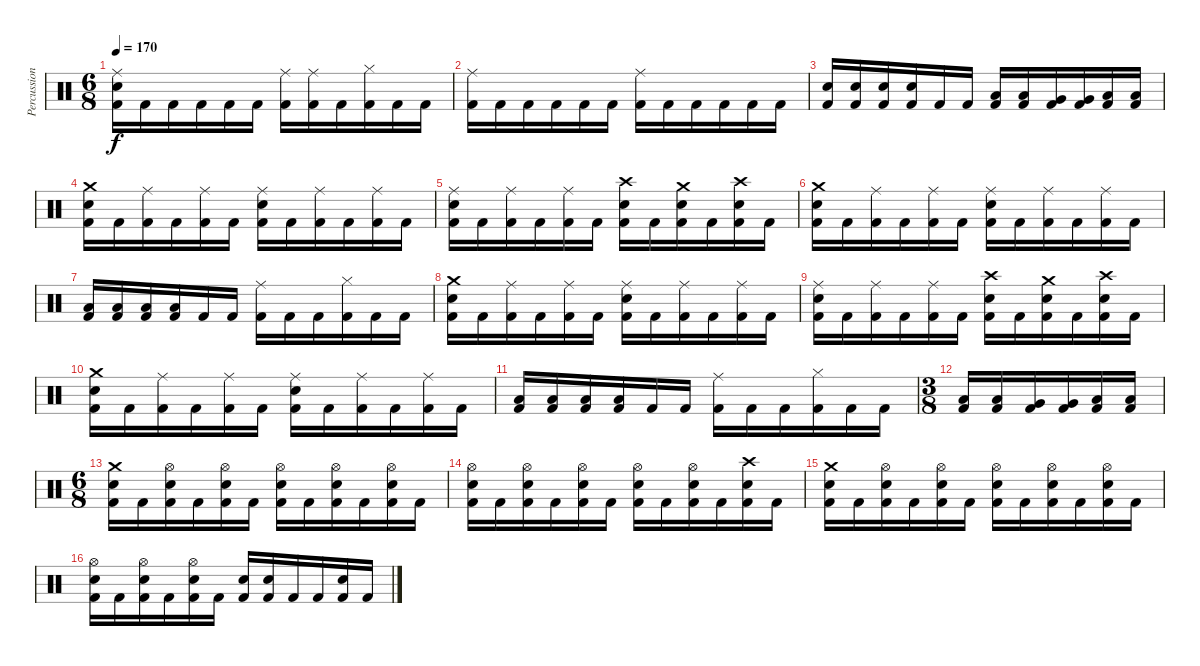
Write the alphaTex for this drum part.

\track ("Percussions" "Percussion") {instrument percussion}
\staff {score}
\articulation defaults
\ts (6 8)
\tempo 170
\clef neutral
\ks c
("Ride (middle)" "Electric Snare (hit)" "Kick (hit) 2").16{dy f} "Kick (hit) 2".16 "Kick (hit) 2".16 "Kick (hit) 2".16 "Kick (hit) 2".16 "Kick (hit) 2".16 ("Ride (middle)" "Kick (hit) 2").16 ("Ride (middle)" "Kick (hit) 2").16 "Kick (hit) 2".16 ("Hi-Hat (closed)" "Kick (hit) 2").16 "Kick (hit) 2".16 "Kick (hit) 2".16 |
("Ride (middle)" "Kick (hit) 2").16 "Kick (hit) 2".16 "Kick (hit) 2".16 "Kick (hit) 2".16 "Kick (hit) 2".16 "Kick (hit) 2".16 ("Ride (middle)" "Kick (hit) 2").16 "Kick (hit) 2".16 "Kick (hit) 2".16 "Kick (hit) 2".16 "Kick (hit) 2".16 "Kick (hit) 2".16 |
("Electric Snare (hit)" "Kick (hit) 2").16 ("Electric Snare (hit)" "Kick (hit) 2").16 ("Electric Snare (hit)" "Kick (hit) 2").16 ("Electric Snare (hit)" "Kick (hit) 2").16 "Kick (hit) 2".16 "Kick (hit) 2".16 ("Low Tom (hit)" "Kick (hit) 2").16 ("Low Tom (hit)" "Kick (hit) 2").16 ("Very Low Tom (hit)" "Kick (hit) 2").16 ("Very Low Tom (hit)" "Kick (hit) 2").16 ("Low Floor Tom (hit)" "Kick (hit) 2").16 ("Low Floor Tom (hit)" "Kick (hit) 2").16 |
("Crash medium (hit)" "Electric Snare (hit)" "Kick (hit) 2").16 "Kick (hit) 2".16 ("Ride (middle)" "Kick (hit) 2").16 "Kick (hit) 2".16 ("Ride (middle)" "Kick (hit) 2").16 "Kick (hit) 2".16 ("Ride (middle)" "Electric Snare (hit)" "Kick (hit) 2").16 "Kick (hit) 2".16 ("Ride (middle)" "Kick (hit) 2").16 "Kick (hit) 2".16 ("Ride (middle)" "Kick (hit) 2").16 "Kick (hit) 2".16 |
("Ride (middle)" "Electric Snare (hit)" "Kick (hit) 2").16 "Kick (hit) 2".16 ("Ride (middle)" "Kick (hit) 2").16 "Kick (hit) 2".16 ("Ride (middle)" "Kick (hit) 2").16 "Kick (hit) 2".16 ("Crash high (hit)" "Electric Snare (hit)" "Kick (hit) 2").16 "Kick (hit) 2".16 ("Crash medium (hit)" "Electric Snare (hit)" "Kick (hit) 2").16 "Kick (hit) 2".16 ("Crash high (hit)" "Electric Snare (hit)" "Kick (hit) 2").16 "Kick (hit) 2".16 |
("Crash medium (hit)" "Electric Snare (hit)" "Kick (hit) 2").16 "Kick (hit) 2".16 ("Ride (middle)" "Kick (hit) 2").16 "Kick (hit) 2".16 ("Ride (middle)" "Kick (hit) 2").16 "Kick (hit) 2".16 ("Ride (middle)" "Electric Snare (hit)" "Kick (hit) 2").16 "Kick (hit) 2".16 ("Ride (middle)" "Kick (hit) 2").16 "Kick (hit) 2".16 ("Ride (middle)" "Kick (hit) 2").16 "Kick (hit) 2".16 |
("Low Tom (hit)" "Kick (hit) 2").16 ("Low Tom (hit)" "Kick (hit) 2").16 ("Low Tom (hit)" "Kick (hit) 2").16 ("Low Tom (hit)" "Kick (hit) 2").16 "Kick (hit) 2".16 "Kick (hit) 2".16 ("Ride (middle)" "Kick (hit) 2").16 "Kick (hit) 2".16 "Kick (hit) 2".16 ("Hi-Hat (closed)" "Kick (hit) 2").16 "Kick (hit) 2".16 "Kick (hit) 2".16 |
("Crash medium (hit)" "Electric Snare (hit)" "Kick (hit) 2").16 "Kick (hit) 2".16 ("Ride (middle)" "Kick (hit) 2").16 "Kick (hit) 2".16 ("Ride (middle)" "Kick (hit) 2").16 "Kick (hit) 2".16 ("Ride (middle)" "Electric Snare (hit)" "Kick (hit) 2").16 "Kick (hit) 2".16 ("Ride (middle)" "Kick (hit) 2").16 "Kick (hit) 2".16 ("Ride (middle)" "Kick (hit) 2").16 "Kick (hit) 2".16 |
("Ride (middle)" "Electric Snare (hit)" "Kick (hit) 2").16 "Kick (hit) 2".16 ("Ride (middle)" "Kick (hit) 2").16 "Kick (hit) 2".16 ("Ride (middle)" "Kick (hit) 2").16 "Kick (hit) 2".16 ("Crash high (hit)" "Electric Snare (hit)" "Kick (hit) 2").16 "Kick (hit) 2".16 ("Crash medium (hit)" "Electric Snare (hit)" "Kick (hit) 2").16 "Kick (hit) 2".16 ("Crash high (hit)" "Electric Snare (hit)" "Kick (hit) 2").16 "Kick (hit) 2".16 |
("Crash medium (hit)" "Electric Snare (hit)" "Kick (hit) 2").16 "Kick (hit) 2".16 ("Ride (middle)" "Kick (hit) 2").16 "Kick (hit) 2".16 ("Ride (middle)" "Kick (hit) 2").16 "Kick (hit) 2".16 ("Ride (middle)" "Electric Snare (hit)" "Kick (hit) 2").16 "Kick (hit) 2".16 ("Ride (middle)" "Kick (hit) 2").16 "Kick (hit) 2".16 ("Ride (middle)" "Kick (hit) 2").16 "Kick (hit) 2".16 |
("Low Tom (hit)" "Kick (hit) 2").16 ("Low Tom (hit)" "Kick (hit) 2").16 ("Low Tom (hit)" "Kick (hit) 2").16 ("Low Tom (hit)" "Kick (hit) 2").16 "Kick (hit) 2".16 "Kick (hit) 2".16 ("Ride (middle)" "Kick (hit) 2").16 "Kick (hit) 2".16 "Kick (hit) 2".16 ("Hi-Hat (closed)" "Kick (hit) 2").16 "Kick (hit) 2".16 "Kick (hit) 2".16 |
\ts (3 8)
("Low Tom (hit)" "Kick (hit) 2").16 ("Low Tom (hit)" "Kick (hit) 2").16 ("Very Low Tom (hit)" "Kick (hit) 2").16 ("Very Low Tom (hit)" "Kick (hit) 2").16 ("Low Floor Tom (hit)" "Kick (hit) 2").16 ("Low Floor Tom (hit)" "Kick (hit) 2").16 |
\ts (6 8)
("Crash medium (hit)" "Electric Snare (hit)" "Kick (hit) 2").16 "Kick (hit) 2".16 ("Hi-Hat (open)" "Electric Snare (hit)" "Kick (hit) 2").16 "Kick (hit) 2".16 ("Hi-Hat (open)" "Electric Snare (hit)" "Kick (hit) 2").16 "Kick (hit) 2".16 ("Hi-Hat (open)" "Electric Snare (hit)" "Kick (hit) 2").16 "Kick (hit) 2".16 ("Hi-Hat (open)" "Electric Snare (hit)" "Kick (hit) 2").16 "Kick (hit) 2".16 ("Hi-Hat (open)" "Electric Snare (hit)" "Kick (hit) 2").16 "Kick (hit) 2".16 |
("Hi-Hat (open)" "Electric Snare (hit)" "Kick (hit) 2").16 "Kick (hit) 2".16 ("Hi-Hat (open)" "Electric Snare (hit)" "Kick (hit) 2").16 "Kick (hit) 2".16 ("Hi-Hat (open)" "Electric Snare (hit)" "Kick (hit) 2").16 "Kick (hit) 2".16 ("Hi-Hat (open)" "Electric Snare (hit)" "Kick (hit) 2").16 "Kick (hit) 2".16 ("Hi-Hat (open)" "Electric Snare (hit)" "Kick (hit) 2").16 "Kick (hit) 2".16 ("Crash high (hit)" "Electric Snare (hit)" "Kick (hit) 2").16 "Kick (hit) 2".16 |
("Crash medium (hit)" "Electric Snare (hit)" "Kick (hit) 2").16 "Kick (hit) 2".16 ("Hi-Hat (open)" "Electric Snare (hit)" "Kick (hit) 2").16 "Kick (hit) 2".16 ("Hi-Hat (open)" "Electric Snare (hit)" "Kick (hit) 2").16 "Kick (hit) 2".16 ("Hi-Hat (open)" "Electric Snare (hit)" "Kick (hit) 2").16 "Kick (hit) 2".16 ("Hi-Hat (open)" "Electric Snare (hit)" "Kick (hit) 2").16 "Kick (hit) 2".16 ("Hi-Hat (open)" "Electric Snare (hit)" "Kick (hit) 2").16 "Kick (hit) 2".16 |
("Hi-Hat (open)" "Electric Snare (hit)" "Kick (hit) 2").16 "Kick (hit) 2".16 ("Hi-Hat (open)" "Electric Snare (hit)" "Kick (hit) 2").16 "Kick (hit) 2".16 ("Hi-Hat (open)" "Electric Snare (hit)" "Kick (hit) 2").16 "Kick (hit) 2".16 ("Electric Snare (hit)" "Kick (hit) 2").16 ("Electric Snare (hit)" "Kick (hit) 2").16 "Kick (hit) 2".16 "Kick (hit) 2".16 ("Electric Snare (hit)" "Kick (hit) 2").16 "Kick (hit) 2".16
